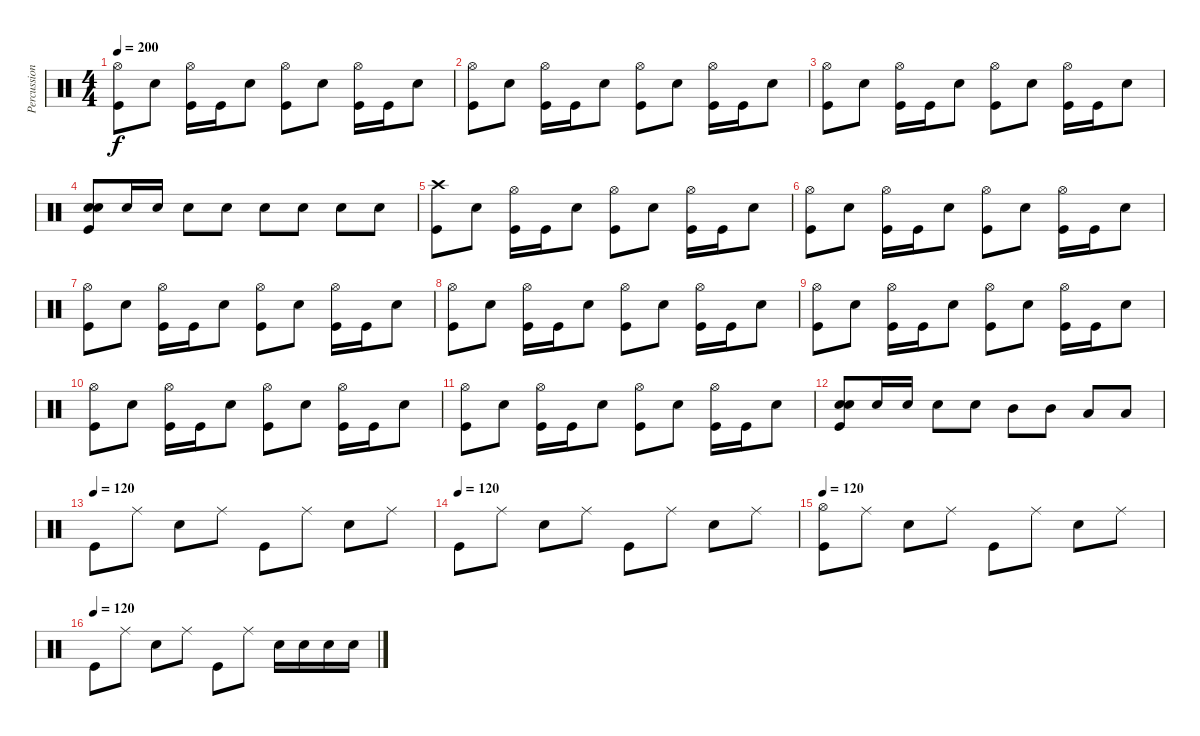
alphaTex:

\track ("Percussion" "Percussion") {instrument percussion}
\staff {score}
\articulation defaults
\ts (4 4)
\tempo 200
\clef neutral
\ks c
("Hi-Hat (open)" "Kick (hit)").8{dy f} "Snare (hit) 2".8 ("Hi-Hat (open)" "Kick (hit)").16 "Kick (hit)".16 "Snare (hit) 2".8 ("Hi-Hat (open)" "Kick (hit)").8 "Snare (hit) 2".8 ("Hi-Hat (open)" "Kick (hit)").16 "Kick (hit)".16 "Snare (hit) 2".8 |
("Hi-Hat (open)" "Kick (hit)").8 "Snare (hit) 2".8 ("Hi-Hat (open)" "Kick (hit)").16 "Kick (hit)".16 "Snare (hit) 2".8 ("Hi-Hat (open)" "Kick (hit)").8 "Snare (hit) 2".8 ("Hi-Hat (open)" "Kick (hit)").16 "Kick (hit)".16 "Snare (hit) 2".8 |
("Hi-Hat (open)" "Kick (hit)").8 "Snare (hit) 2".8 ("Hi-Hat (open)" "Kick (hit)").16 "Kick (hit)".16 "Snare (hit) 2".8 ("Hi-Hat (open)" "Kick (hit)").8 "Snare (hit) 2".8 ("Hi-Hat (open)" "Kick (hit)").16 "Kick (hit)".16 "Snare (hit) 2".8 |
("Snare (hit) 2" "Snare (hit) 2" "Kick (hit)").8 "Snare (hit) 2".16 "Snare (hit) 2".16 "Snare (hit) 2".8 "Snare (hit) 2".8 "Snare (hit) 2".8 "Snare (hit) 2".8 "Snare (hit) 2".8 "Snare (hit) 2".8 |
("Crash high (hit)" "Kick (hit)").8 "Snare (hit) 2".8 ("Hi-Hat (open)" "Kick (hit)").16 "Kick (hit)".16 "Snare (hit) 2".8 ("Hi-Hat (open)" "Kick (hit)").8 "Snare (hit) 2".8 ("Hi-Hat (open)" "Kick (hit)").16 "Kick (hit)".16 "Snare (hit) 2".8 |
("Hi-Hat (open)" "Kick (hit)").8 "Snare (hit) 2".8 ("Hi-Hat (open)" "Kick (hit)").16 "Kick (hit)".16 "Snare (hit) 2".8 ("Hi-Hat (open)" "Kick (hit)").8 "Snare (hit) 2".8 ("Hi-Hat (open)" "Kick (hit)").16 "Kick (hit)".16 "Snare (hit) 2".8 |
("Hi-Hat (open)" "Kick (hit)").8 "Snare (hit) 2".8 ("Hi-Hat (open)" "Kick (hit)").16 "Kick (hit)".16 "Snare (hit) 2".8 ("Hi-Hat (open)" "Kick (hit)").8 "Snare (hit) 2".8 ("Hi-Hat (open)" "Kick (hit)").16 "Kick (hit)".16 "Snare (hit) 2".8 |
("Hi-Hat (open)" "Kick (hit)").8 "Snare (hit) 2".8 ("Hi-Hat (open)" "Kick (hit)").16 "Kick (hit)".16 "Snare (hit) 2".8 ("Hi-Hat (open)" "Kick (hit)").8 "Snare (hit) 2".8 ("Hi-Hat (open)" "Kick (hit)").16 "Kick (hit)".16 "Snare (hit) 2".8 |
("Hi-Hat (open)" "Kick (hit)").8 "Snare (hit) 2".8 ("Hi-Hat (open)" "Kick (hit)").16 "Kick (hit)".16 "Snare (hit) 2".8 ("Hi-Hat (open)" "Kick (hit)").8 "Snare (hit) 2".8 ("Hi-Hat (open)" "Kick (hit)").16 "Kick (hit)".16 "Snare (hit) 2".8 |
("Hi-Hat (open)" "Kick (hit)").8 "Snare (hit) 2".8 ("Hi-Hat (open)" "Kick (hit)").16 "Kick (hit)".16 "Snare (hit) 2".8 ("Hi-Hat (open)" "Kick (hit)").8 "Snare (hit) 2".8 ("Hi-Hat (open)" "Kick (hit)").16 "Kick (hit)".16 "Snare (hit) 2".8 |
("Hi-Hat (open)" "Kick (hit)").8 "Snare (hit) 2".8 ("Hi-Hat (open)" "Kick (hit)").16 "Kick (hit)".16 "Snare (hit) 2".8 ("Hi-Hat (open)" "Kick (hit)").8 "Snare (hit) 2".8 ("Hi-Hat (open)" "Kick (hit)").16 "Kick (hit)".16 "Snare (hit) 2".8 |
("Snare (hit) 2" "Snare (hit) 2" "Kick (hit)").8 "Snare (hit) 2".16 "Snare (hit) 2".16 "Snare (hit) 2".8 "Snare (hit) 2".8 "Mid Tom (hit)".8 "Mid Tom (hit)".8 "Low Tom (hit)".8 "Low Tom (hit)".8 |
\tempo (120)
"Kick (hit)".8 "Ride (middle)".8 "Snare (hit) 2".8 "Ride (middle)".8 "Kick (hit)".8 "Ride (middle)".8 "Snare (hit) 2".8 "Ride (middle)".8 |
\tempo (120)
"Kick (hit)".8 "Ride (middle)".8 "Snare (hit) 2".8 "Ride (middle)".8 "Kick (hit)".8 "Ride (middle)".8 "Snare (hit) 2".8 "Ride (middle)".8 |
\tempo 120
("Hi-Hat (open)" "Kick (hit)").8 "Ride (middle)".8 "Snare (hit) 2".8 "Ride (middle)".8 "Kick (hit)".8 "Ride (middle)".8 "Snare (hit) 2".8 "Ride (middle)".8 |
\tempo (120)
"Kick (hit)".8 "Ride (middle)".8 "Snare (hit) 2".8 "Ride (middle)".8 "Kick (hit)".8 "Ride (middle)".8 "Snare (hit) 2".16 "Snare (hit) 2".16 "Snare (hit) 2".16 "Snare (hit) 2".16
